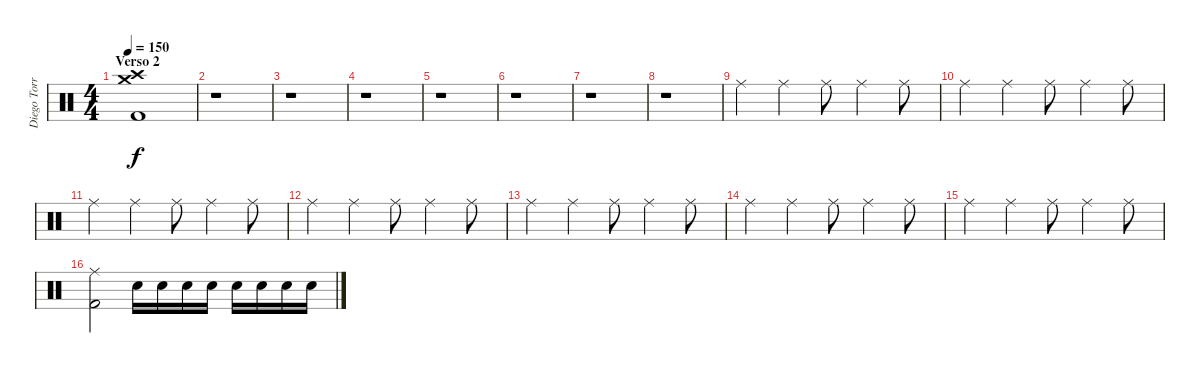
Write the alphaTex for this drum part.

\track ("Diego Torres [Bateria]" "Diego Torr") {instrument percussion}
\staff {score}
\articulation defaults
\ts (4 4)
\section ("" "Verso 2")
\tempo 150
\clef neutral
\ks c
("Crash high (hit)" "Crash medium (hit)" "Kick (hit) 2").1{dy f} |
r.1 |
r.1 |
r.1 |
r.1 |
r.1 |
r.1 |
r.1 |
"Ride (middle)".4 "Ride (middle)".4 "Ride (middle)".8 "Ride (middle)".4 "Ride (middle)".8 |
"Ride (middle)".4 "Ride (middle)".4 "Ride (middle)".8 "Ride (middle)".4 "Ride (middle)".8 |
"Ride (middle)".4 "Ride (middle)".4 "Ride (middle)".8 "Ride (middle)".4 "Ride (middle)".8 |
"Ride (middle)".4 "Ride (middle)".4 "Ride (middle)".8 "Ride (middle)".4 "Ride (middle)".8 |
"Ride (middle)".4 "Ride (middle)".4 "Ride (middle)".8 "Ride (middle)".4 "Ride (middle)".8 |
"Ride (middle)".4 "Ride (middle)".4 "Ride (middle)".8 "Ride (middle)".4 "Ride (middle)".8 |
"Ride (middle)".4 "Ride (middle)".4 "Ride (middle)".8 "Ride (middle)".4 "Ride (middle)".8 |
("Ride (middle)" "Kick (hit) 2").2 "Electric Snare (hit)".16 "Electric Snare (hit)".16 "Electric Snare (hit)".16 "Electric Snare (hit)".16 "Electric Snare (hit)".16 "Electric Snare (hit)".16 "Electric Snare (hit)".16 "Electric Snare (hit)".16
